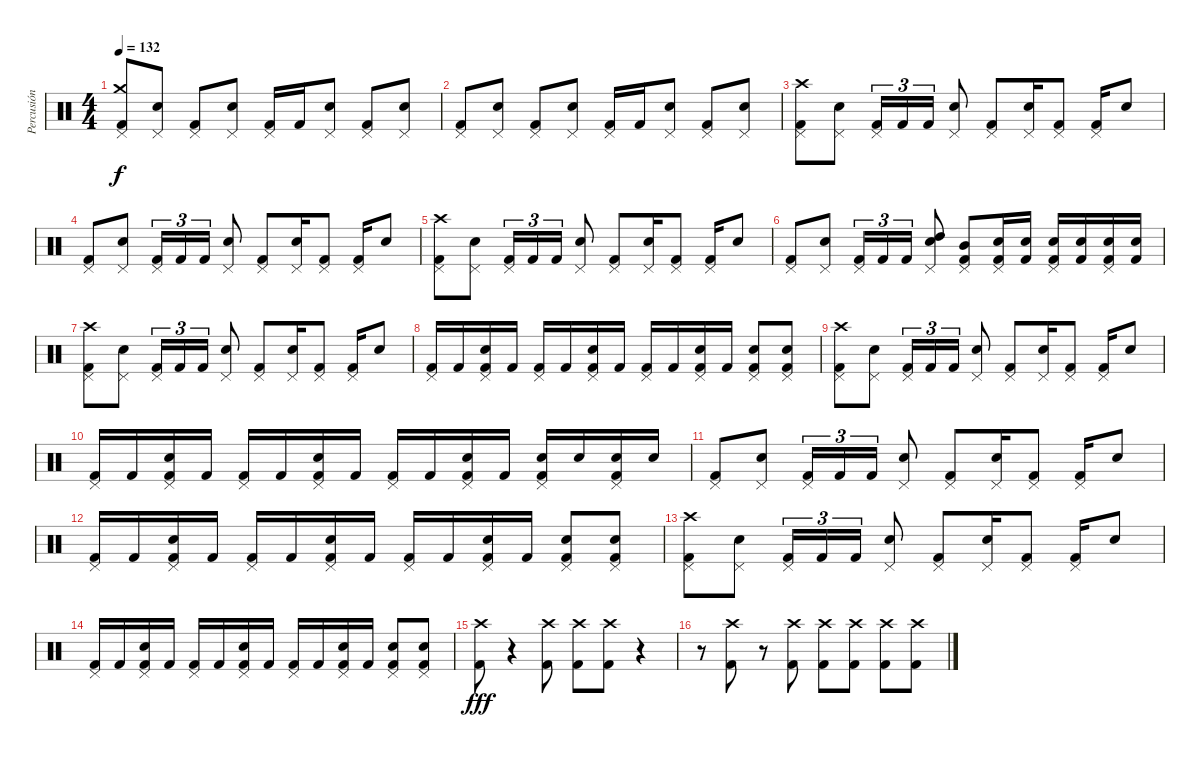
\track ("Percusión" "Percusión") {instrument percussion}
\staff {score}
\articulation defaults
\ts (4 4)
\tempo 132
\clef neutral
\ks c
("Pedal Hi-Hat (hit)" "Crash medium (hit)" "Kick (hit) 2").8{dy f} ("Pedal Hi-Hat (hit)" "Electric Snare (hit)").8 ("Pedal Hi-Hat (hit)" "Kick (hit) 2").8 ("Pedal Hi-Hat (hit)" "Electric Snare (hit)").8 ("Pedal Hi-Hat (hit)" "Kick (hit) 2").16 "Kick (hit) 2".16 ("Pedal Hi-Hat (hit)" "Electric Snare (hit)").8 ("Pedal Hi-Hat (hit)" "Kick (hit) 2").8 ("Pedal Hi-Hat (hit)" "Electric Snare (hit)").8 |
("Pedal Hi-Hat (hit)" "Kick (hit) 2").8 ("Pedal Hi-Hat (hit)" "Electric Snare (hit)").8 ("Pedal Hi-Hat (hit)" "Kick (hit) 2").8 ("Pedal Hi-Hat (hit)" "Electric Snare (hit)").8 ("Pedal Hi-Hat (hit)" "Kick (hit) 2").16 "Kick (hit) 2".16 ("Pedal Hi-Hat (hit)" "Electric Snare (hit)").8 ("Pedal Hi-Hat (hit)" "Kick (hit) 2").8 ("Pedal Hi-Hat (hit)" "Electric Snare (hit)").8 |
("Pedal Hi-Hat (hit)" "Crash high (hit)" "Kick (hit) 2").8 ("Pedal Hi-Hat (hit)" "Electric Snare (hit)").8 ("Pedal Hi-Hat (hit)" "Kick (hit) 2").16{tu (3 2)} "Kick (hit) 2".16{tu (3 2)} "Kick (hit) 2".16{tu (3 2)} ("Pedal Hi-Hat (hit)" "Electric Snare (hit)").8 ("Pedal Hi-Hat (hit)" "Kick (hit) 2").8 ("Pedal Hi-Hat (hit)" "Electric Snare (hit)").16 ("Pedal Hi-Hat (hit)" "Kick (hit) 2").8 ("Pedal Hi-Hat (hit)" "Kick (hit) 2").16 "Electric Snare (hit)".8 |
("Pedal Hi-Hat (hit)" "Kick (hit) 2").8 ("Pedal Hi-Hat (hit)" "Electric Snare (hit)").8 ("Pedal Hi-Hat (hit)" "Kick (hit) 2").16{tu (3 2)} "Kick (hit) 2".16{tu (3 2)} "Kick (hit) 2".16{tu (3 2)} ("Pedal Hi-Hat (hit)" "Electric Snare (hit)").8 ("Pedal Hi-Hat (hit)" "Kick (hit) 2").8 ("Pedal Hi-Hat (hit)" "Electric Snare (hit)").16 ("Pedal Hi-Hat (hit)" "Kick (hit) 2").8 ("Pedal Hi-Hat (hit)" "Kick (hit) 2").16 "Electric Snare (hit)".8 |
("Pedal Hi-Hat (hit)" "Crash high (hit)" "Kick (hit) 2").8 ("Pedal Hi-Hat (hit)" "Electric Snare (hit)").8 ("Pedal Hi-Hat (hit)" "Kick (hit) 2").16{tu (3 2)} "Kick (hit) 2".16{tu (3 2)} "Kick (hit) 2".16{tu (3 2)} ("Pedal Hi-Hat (hit)" "Electric Snare (hit)").8 ("Pedal Hi-Hat (hit)" "Kick (hit) 2").8 ("Pedal Hi-Hat (hit)" "Electric Snare (hit)").16 ("Pedal Hi-Hat (hit)" "Kick (hit) 2").8 ("Pedal Hi-Hat (hit)" "Kick (hit) 2").16 "Electric Snare (hit)".8 |
("Pedal Hi-Hat (hit)" "Kick (hit) 2").8 ("Pedal Hi-Hat (hit)" "Electric Snare (hit)").8 ("Pedal Hi-Hat (hit)" "Kick (hit) 2").16{tu (3 2)} "Kick (hit) 2".16{tu (3 2)} "Kick (hit) 2".16{tu (3 2)} ("Pedal Hi-Hat (hit)" "High Tom (hit)" "Electric Snare (hit)").8 ("Pedal Hi-Hat (hit)" "Mid Tom (hit)" "Kick (hit) 2").8 ("Pedal Hi-Hat (hit)" "Electric Snare (hit)" "Kick (hit) 2").16 ("Electric Snare (hit)" "Kick (hit) 2").16 ("Pedal Hi-Hat (hit)" "Electric Snare (hit)" "Kick (hit) 2").16 ("Electric Snare (hit)" "Kick (hit) 2").16 ("Pedal Hi-Hat (hit)" "Electric Snare (hit)" "Kick (hit) 2").16 ("Electric Snare (hit)" "Kick (hit) 2").16 |
("Pedal Hi-Hat (hit)" "Crash high (hit)" "Kick (hit) 2").8 ("Pedal Hi-Hat (hit)" "Electric Snare (hit)").8 ("Pedal Hi-Hat (hit)" "Kick (hit) 2").16{tu (3 2)} "Kick (hit) 2".16{tu (3 2)} "Kick (hit) 2".16{tu (3 2)} ("Pedal Hi-Hat (hit)" "Electric Snare (hit)").8 ("Pedal Hi-Hat (hit)" "Kick (hit) 2").8 ("Pedal Hi-Hat (hit)" "Electric Snare (hit)").16 ("Pedal Hi-Hat (hit)" "Kick (hit) 2").8 ("Pedal Hi-Hat (hit)" "Kick (hit) 2").16 "Electric Snare (hit)".8 |
("Pedal Hi-Hat (hit)" "Kick (hit) 2").16 "Kick (hit) 2".16 ("Pedal Hi-Hat (hit)" "Electric Snare (hit)" "Kick (hit) 2").16 "Kick (hit) 2".16 ("Pedal Hi-Hat (hit)" "Kick (hit) 2").16 "Kick (hit) 2".16 ("Pedal Hi-Hat (hit)" "Electric Snare (hit)" "Kick (hit) 2").16 "Kick (hit) 2".16 ("Pedal Hi-Hat (hit)" "Kick (hit) 2").16 "Kick (hit) 2".16 ("Pedal Hi-Hat (hit)" "Electric Snare (hit)" "Kick (hit) 2").16 "Kick (hit) 2".16 ("Pedal Hi-Hat (hit)" "Electric Snare (hit)" "Kick (hit) 2").8 ("Pedal Hi-Hat (hit)" "Electric Snare (hit)" "Kick (hit) 2").8 |
("Pedal Hi-Hat (hit)" "Crash high (hit)" "Kick (hit) 2").8 ("Pedal Hi-Hat (hit)" "Electric Snare (hit)").8 ("Pedal Hi-Hat (hit)" "Kick (hit) 2").16{tu (3 2)} "Kick (hit) 2".16{tu (3 2)} "Kick (hit) 2".16{tu (3 2)} ("Pedal Hi-Hat (hit)" "Electric Snare (hit)").8 ("Pedal Hi-Hat (hit)" "Kick (hit) 2").8 ("Pedal Hi-Hat (hit)" "Electric Snare (hit)").16 ("Pedal Hi-Hat (hit)" "Kick (hit) 2").8 ("Pedal Hi-Hat (hit)" "Kick (hit) 2").16 "Electric Snare (hit)".8 |
("Pedal Hi-Hat (hit)" "Kick (hit) 2").16 "Kick (hit) 2".16 ("Pedal Hi-Hat (hit)" "Electric Snare (hit)" "Kick (hit) 2").16 "Kick (hit) 2".16 ("Pedal Hi-Hat (hit)" "Kick (hit) 2").16 "Kick (hit) 2".16 ("Pedal Hi-Hat (hit)" "Electric Snare (hit)" "Kick (hit) 2").16 "Kick (hit) 2".16 ("Pedal Hi-Hat (hit)" "Kick (hit) 2").16 "Kick (hit) 2".16 ("Pedal Hi-Hat (hit)" "Electric Snare (hit)" "Kick (hit) 2").16 "Kick (hit) 2".16 ("Pedal Hi-Hat (hit)" "Electric Snare (hit)" "Kick (hit) 2").16 "Electric Snare (hit)".16 ("Pedal Hi-Hat (hit)" "Electric Snare (hit)" "Kick (hit) 2").16 "Electric Snare (hit)".16 |
("Pedal Hi-Hat (hit)" "Kick (hit) 2").8 ("Pedal Hi-Hat (hit)" "Electric Snare (hit)").8 ("Pedal Hi-Hat (hit)" "Kick (hit) 2").16{tu (3 2)} "Kick (hit) 2".16{tu (3 2)} "Kick (hit) 2".16{tu (3 2)} ("Pedal Hi-Hat (hit)" "Electric Snare (hit)").8 ("Pedal Hi-Hat (hit)" "Kick (hit) 2").8 ("Pedal Hi-Hat (hit)" "Electric Snare (hit)").16 ("Pedal Hi-Hat (hit)" "Kick (hit) 2").8 ("Pedal Hi-Hat (hit)" "Kick (hit) 2").16 "Electric Snare (hit)".8 |
("Pedal Hi-Hat (hit)" "Kick (hit) 2").16 "Kick (hit) 2".16 ("Pedal Hi-Hat (hit)" "Electric Snare (hit)" "Kick (hit) 2").16 "Kick (hit) 2".16 ("Pedal Hi-Hat (hit)" "Kick (hit) 2").16 "Kick (hit) 2".16 ("Pedal Hi-Hat (hit)" "Electric Snare (hit)" "Kick (hit) 2").16 "Kick (hit) 2".16 ("Pedal Hi-Hat (hit)" "Kick (hit) 2").16 "Kick (hit) 2".16 ("Pedal Hi-Hat (hit)" "Electric Snare (hit)" "Kick (hit) 2").16 "Kick (hit) 2".16 ("Pedal Hi-Hat (hit)" "Electric Snare (hit)" "Kick (hit) 2").8 ("Pedal Hi-Hat (hit)" "Electric Snare (hit)" "Kick (hit) 2").8 |
("Pedal Hi-Hat (hit)" "Crash high (hit)" "Kick (hit) 2").8 ("Pedal Hi-Hat (hit)" "Electric Snare (hit)").8 ("Pedal Hi-Hat (hit)" "Kick (hit) 2").16{tu (3 2)} "Kick (hit) 2".16{tu (3 2)} "Kick (hit) 2".16{tu (3 2)} ("Pedal Hi-Hat (hit)" "Electric Snare (hit)").8 ("Pedal Hi-Hat (hit)" "Kick (hit) 2").8 ("Pedal Hi-Hat (hit)" "Electric Snare (hit)").16 ("Pedal Hi-Hat (hit)" "Kick (hit) 2").8 ("Pedal Hi-Hat (hit)" "Kick (hit) 2").16 "Electric Snare (hit)".8 |
("Pedal Hi-Hat (hit)" "Kick (hit) 2").16 "Kick (hit) 2".16 ("Pedal Hi-Hat (hit)" "Electric Snare (hit)" "Kick (hit) 2").16 "Kick (hit) 2".16 ("Pedal Hi-Hat (hit)" "Kick (hit) 2").16 "Kick (hit) 2".16 ("Pedal Hi-Hat (hit)" "Electric Snare (hit)" "Kick (hit) 2").16 "Kick (hit) 2".16 ("Pedal Hi-Hat (hit)" "Kick (hit) 2").16 "Kick (hit) 2".16 ("Pedal Hi-Hat (hit)" "Electric Snare (hit)" "Kick (hit) 2").16 "Kick (hit) 2".16 ("Pedal Hi-Hat (hit)" "Electric Snare (hit)" "Kick (hit) 2").8 ("Pedal Hi-Hat (hit)" "Electric Snare (hit)" "Kick (hit) 2").8 |
("Crash high (hit)" "Kick (hit) 2").8{dy fff} r.4 ("Crash high (hit)" "Kick (hit) 2").8 ("Crash high (hit)" "Kick (hit) 2").8 ("Crash high (hit)" "Kick (hit) 2").8 r.4 |
r.8 ("Crash high (hit)" "Kick (hit) 2").8 r.8 ("Crash high (hit)" "Kick (hit) 2").8 ("Crash high (hit)" "Kick (hit) 2").8 ("Crash high (hit)" "Kick (hit) 2").8 ("Crash high (hit)" "Kick (hit) 2").8 ("Crash high (hit)" "Kick (hit) 2").8
